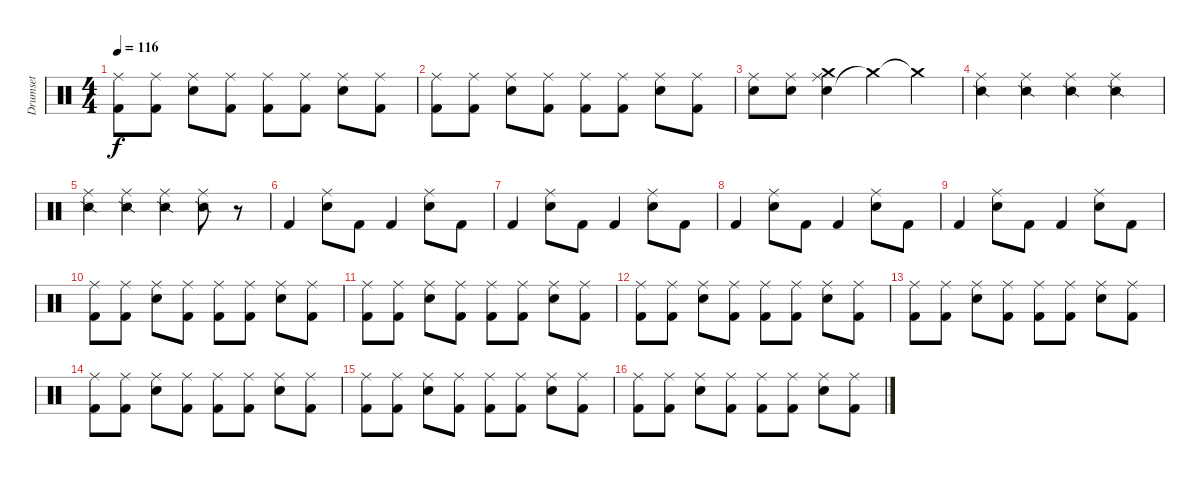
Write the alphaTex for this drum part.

\track ("Drumset" "Drumset") {instrument percussion}
\staff {score}
\articulation defaults
\ts (4 4)
\tempo 116
\clef neutral
\ks c
("Kick (hit) 2" "Ride (middle)").8{dy f} ("Kick (hit) 2" "Ride (middle)").8 ("Electric Snare (hit)" "Ride (middle)").8 ("Kick (hit) 2" "Ride (middle)").8 ("Kick (hit) 2" "Ride (middle)").8 ("Kick (hit) 2" "Ride (middle)").8 ("Electric Snare (hit)" "Ride (middle)").8 ("Kick (hit) 2" "Ride (middle)").8 |
("Kick (hit) 2" "Ride (middle)").8 ("Kick (hit) 2" "Ride (middle)").8 ("Electric Snare (hit)" "Ride (middle)").8 ("Kick (hit) 2" "Ride (middle)").8 ("Kick (hit) 2" "Ride (middle)").8 ("Kick (hit) 2" "Ride (middle)").8 ("Electric Snare (hit)" "Ride (middle)").8 ("Kick (hit) 2" "Ride (middle)").8 |
("Electric Snare (hit)" "Ride (middle)").8 ("Electric Snare (hit)" "Ride (middle)").8 ("Electric Snare (hit)" "Ride (middle)" "Crash medium (hit)").4 "Crash medium (hit)"{t}.4 "Crash medium (hit)"{t}.4 |
("Snare (side stick) 2" "Ride (middle)").4 ("Snare (side stick) 2" "Ride (middle)").4 ("Snare (side stick) 2" "Ride (middle)").4 ("Snare (side stick) 2" "Ride (middle)").4 |
("Snare (side stick) 2" "Ride (middle)").4 ("Snare (side stick) 2" "Ride (middle)").4 ("Snare (side stick) 2" "Ride (middle)").4 ("Snare (side stick) 2" "Ride (middle)").8 r.8 |
"Kick (hit) 2".4 ("Electric Snare (hit)" "Ride (middle)").8 "Kick (hit) 2".8 "Kick (hit) 2".4 ("Electric Snare (hit)" "Ride (middle)").8 "Kick (hit) 2".8 |
"Kick (hit) 2".4 ("Electric Snare (hit)" "Ride (middle)").8 "Kick (hit) 2".8 "Kick (hit) 2".4 ("Electric Snare (hit)" "Ride (middle)").8 "Kick (hit) 2".8 |
"Kick (hit) 2".4 ("Electric Snare (hit)" "Ride (middle)").8 "Kick (hit) 2".8 "Kick (hit) 2".4 ("Electric Snare (hit)" "Ride (middle)").8 "Kick (hit) 2".8 |
"Kick (hit) 2".4 ("Electric Snare (hit)" "Ride (middle)").8 "Kick (hit) 2".8 "Kick (hit) 2".4 ("Electric Snare (hit)" "Ride (middle)").8 "Kick (hit) 2".8 |
("Kick (hit) 2" "Ride (middle)").8 ("Kick (hit) 2" "Ride (middle)").8 ("Electric Snare (hit)" "Ride (middle)").8 ("Kick (hit) 2" "Ride (middle)").8 ("Kick (hit) 2" "Ride (middle)").8 ("Kick (hit) 2" "Ride (middle)").8 ("Electric Snare (hit)" "Ride (middle)").8 ("Kick (hit) 2" "Ride (middle)").8 |
("Kick (hit) 2" "Ride (middle)").8 ("Kick (hit) 2" "Ride (middle)").8 ("Electric Snare (hit)" "Ride (middle)").8 ("Kick (hit) 2" "Ride (middle)").8 ("Kick (hit) 2" "Ride (middle)").8 ("Kick (hit) 2" "Ride (middle)").8 ("Electric Snare (hit)" "Ride (middle)").8 ("Kick (hit) 2" "Ride (middle)").8 |
("Kick (hit) 2" "Ride (middle)").8 ("Kick (hit) 2" "Ride (middle)").8 ("Electric Snare (hit)" "Ride (middle)").8 ("Kick (hit) 2" "Ride (middle)").8 ("Kick (hit) 2" "Ride (middle)").8 ("Kick (hit) 2" "Ride (middle)").8 ("Electric Snare (hit)" "Ride (middle)").8 ("Kick (hit) 2" "Ride (middle)").8 |
("Kick (hit) 2" "Ride (middle)").8 ("Kick (hit) 2" "Ride (middle)").8 ("Electric Snare (hit)" "Ride (middle)").8 ("Kick (hit) 2" "Ride (middle)").8 ("Kick (hit) 2" "Ride (middle)").8 ("Kick (hit) 2" "Ride (middle)").8 ("Electric Snare (hit)" "Ride (middle)").8 ("Kick (hit) 2" "Ride (middle)").8 |
("Kick (hit) 2" "Ride (middle)").8 ("Kick (hit) 2" "Ride (middle)").8 ("Electric Snare (hit)" "Ride (middle)").8 ("Kick (hit) 2" "Ride (middle)").8 ("Kick (hit) 2" "Ride (middle)").8 ("Kick (hit) 2" "Ride (middle)").8 ("Electric Snare (hit)" "Ride (middle)").8 ("Kick (hit) 2" "Ride (middle)").8 |
("Kick (hit) 2" "Ride (middle)").8 ("Kick (hit) 2" "Ride (middle)").8 ("Electric Snare (hit)" "Ride (middle)").8 ("Kick (hit) 2" "Ride (middle)").8 ("Kick (hit) 2" "Ride (middle)").8 ("Kick (hit) 2" "Ride (middle)").8 ("Electric Snare (hit)" "Ride (middle)").8 ("Kick (hit) 2" "Ride (middle)").8 |
("Kick (hit) 2" "Ride (middle)").8 ("Kick (hit) 2" "Ride (middle)").8 ("Electric Snare (hit)" "Ride (middle)").8 ("Kick (hit) 2" "Ride (middle)").8 ("Kick (hit) 2" "Ride (middle)").8 ("Kick (hit) 2" "Ride (middle)").8 ("Electric Snare (hit)" "Ride (middle)").8 ("Kick (hit) 2" "Ride (middle)").8
